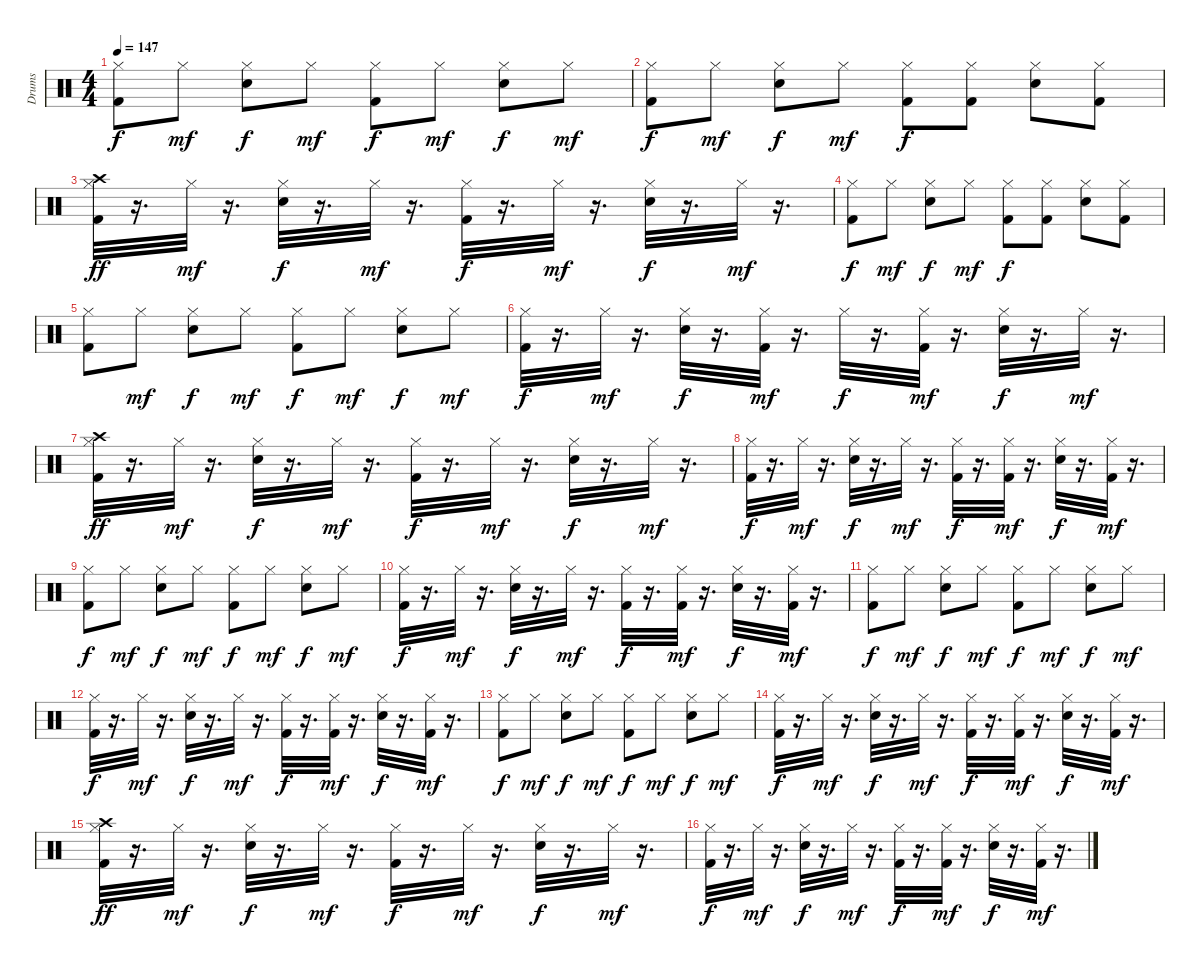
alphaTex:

\track ("Drums" "Drums") {instrument percussion}
\staff {score}
\articulation defaults
\ts (4 4)
\tempo 147
\clef neutral
\ks c
("Hi-Hat (closed)" "Kick (hit) 2").8{dy f} "Hi-Hat (closed)".8{dy mf} ("Hi-Hat (closed)" "Snare (hit) 2").8{dy f} "Hi-Hat (closed)".8{dy mf} ("Hi-Hat (closed)" "Kick (hit) 2").8{dy f} "Hi-Hat (closed)".8{dy mf} ("Hi-Hat (closed)" "Snare (hit) 2").8{dy f} "Hi-Hat (closed)".8{dy mf} |
("Hi-Hat (closed)" "Kick (hit) 2").8{dy f} "Hi-Hat (closed)".8{dy mf} ("Hi-Hat (closed)" "Snare (hit) 2").8{dy f} "Hi-Hat (closed)".8{dy mf} ("Hi-Hat (closed)" "Kick (hit) 2").8{dy f} ("Hi-Hat (closed)" "Kick (hit) 2").8 ("Hi-Hat (closed)" "Snare (hit) 2").8 ("Hi-Hat (closed)" "Kick (hit) 2").8 |
("Kick (hit) 2" "Hi-Hat (closed)" "Crash high (hit)").32{dy ff} r.16{d} "Hi-Hat (closed)".32{dy mf} r.16{d} ("Snare (hit) 2" "Hi-Hat (closed)").32{dy f} r.16{d} "Hi-Hat (closed)".32{dy mf} r.16{d} ("Kick (hit) 2" "Hi-Hat (closed)").32{dy f} r.16{d} "Hi-Hat (closed)".32{dy mf} r.16{d} ("Snare (hit) 2" "Hi-Hat (closed)").32{dy f} r.16{d} "Hi-Hat (closed)".32{dy mf} r.16{d} |
("Hi-Hat (closed)" "Kick (hit) 2").8{dy f} "Hi-Hat (closed)".8{dy mf} ("Hi-Hat (closed)" "Snare (hit) 2").8{dy f} "Hi-Hat (closed)".8{dy mf} ("Hi-Hat (closed)" "Kick (hit) 2").8{dy f} ("Hi-Hat (closed)" "Kick (hit) 2").8 ("Hi-Hat (closed)" "Snare (hit) 2").8 ("Hi-Hat (closed)" "Kick (hit) 2").8 |
("Hi-Hat (closed)" "Kick (hit) 2").8 "Hi-Hat (closed)".8{dy mf} ("Hi-Hat (closed)" "Snare (hit) 2").8{dy f} "Hi-Hat (closed)".8{dy mf} ("Hi-Hat (closed)" "Kick (hit) 2").8{dy f} "Hi-Hat (closed)".8{dy mf} ("Hi-Hat (closed)" "Snare (hit) 2").8{dy f} "Hi-Hat (closed)".8{dy mf} |
("Kick (hit) 2" "Hi-Hat (closed)").32{dy f} r.16{d} "Hi-Hat (closed)".32{dy mf} r.16{d} ("Snare (hit) 2" "Hi-Hat (closed)").32{dy f} r.16{d} ("Kick (hit) 2" "Hi-Hat (closed)").32{dy mf} r.16{d} "Hi-Hat (closed)".32{dy f} r.16{d} ("Kick (hit) 2" "Hi-Hat (closed)").32{dy mf} r.16{d} ("Snare (hit) 2" "Hi-Hat (closed)").32{dy f} r.16{d} "Hi-Hat (closed)".32{dy mf} r.16{d} |
("Kick (hit) 2" "Hi-Hat (closed)" "Crash high (hit)").32{dy ff} r.16{d} "Hi-Hat (closed)".32{dy mf} r.16{d} ("Snare (hit) 2" "Hi-Hat (closed)").32{dy f} r.16{d} "Hi-Hat (closed)".32{dy mf} r.16{d} ("Kick (hit) 2" "Hi-Hat (closed)").32{dy f} r.16{d} "Hi-Hat (closed)".32{dy mf} r.16{d} ("Snare (hit) 2" "Hi-Hat (closed)").32{dy f} r.16{d} "Hi-Hat (closed)".32{dy mf} r.16{d} |
("Kick (hit) 2" "Hi-Hat (closed)").32{dy f} r.16{d} "Hi-Hat (closed)".32{dy mf} r.16{d} ("Snare (hit) 2" "Hi-Hat (closed)").32{dy f} r.16{d} "Hi-Hat (closed)".32{dy mf} r.16{d} ("Kick (hit) 2" "Hi-Hat (closed)").32{dy f} r.16{d} ("Kick (hit) 2" "Hi-Hat (closed)").32{dy mf} r.16{d} ("Snare (hit) 2" "Hi-Hat (closed)").32{dy f} r.16{d} ("Kick (hit) 2" "Hi-Hat (closed)").32{dy mf} r.16{d} |
("Hi-Hat (closed)" "Kick (hit) 2").8{dy f} "Hi-Hat (closed)".8{dy mf} ("Hi-Hat (closed)" "Snare (hit) 2").8{dy f} "Hi-Hat (closed)".8{dy mf} ("Hi-Hat (closed)" "Kick (hit) 2").8{dy f} "Hi-Hat (closed)".8{dy mf} ("Hi-Hat (closed)" "Snare (hit) 2").8{dy f} "Hi-Hat (closed)".8{dy mf} |
("Kick (hit) 2" "Hi-Hat (closed)").32{dy f} r.16{d} "Hi-Hat (closed)".32{dy mf} r.16{d} ("Snare (hit) 2" "Hi-Hat (closed)").32{dy f} r.16{d} "Hi-Hat (closed)".32{dy mf} r.16{d} ("Kick (hit) 2" "Hi-Hat (closed)").32{dy f} r.16{d} ("Kick (hit) 2" "Hi-Hat (closed)").32{dy mf} r.16{d} ("Snare (hit) 2" "Hi-Hat (closed)").32{dy f} r.16{d} ("Kick (hit) 2" "Hi-Hat (closed)").32{dy mf} r.16{d} |
("Hi-Hat (closed)" "Kick (hit) 2").8{dy f} "Hi-Hat (closed)".8{dy mf} ("Hi-Hat (closed)" "Snare (hit) 2").8{dy f} "Hi-Hat (closed)".8{dy mf} ("Hi-Hat (closed)" "Kick (hit) 2").8{dy f} "Hi-Hat (closed)".8{dy mf} ("Hi-Hat (closed)" "Snare (hit) 2").8{dy f} "Hi-Hat (closed)".8{dy mf} |
("Kick (hit) 2" "Hi-Hat (closed)").32{dy f} r.16{d} "Hi-Hat (closed)".32{dy mf} r.16{d} ("Snare (hit) 2" "Hi-Hat (closed)").32{dy f} r.16{d} "Hi-Hat (closed)".32{dy mf} r.16{d} ("Kick (hit) 2" "Hi-Hat (closed)").32{dy f} r.16{d} ("Kick (hit) 2" "Hi-Hat (closed)").32{dy mf} r.16{d} ("Snare (hit) 2" "Hi-Hat (closed)").32{dy f} r.16{d} ("Kick (hit) 2" "Hi-Hat (closed)").32{dy mf} r.16{d} |
("Hi-Hat (closed)" "Kick (hit) 2").8{dy f} "Hi-Hat (closed)".8{dy mf} ("Hi-Hat (closed)" "Snare (hit) 2").8{dy f} "Hi-Hat (closed)".8{dy mf} ("Hi-Hat (closed)" "Kick (hit) 2").8{dy f} "Hi-Hat (closed)".8{dy mf} ("Hi-Hat (closed)" "Snare (hit) 2").8{dy f} "Hi-Hat (closed)".8{dy mf} |
("Kick (hit) 2" "Hi-Hat (closed)").32{dy f} r.16{d} "Hi-Hat (closed)".32{dy mf} r.16{d} ("Snare (hit) 2" "Hi-Hat (closed)").32{dy f} r.16{d} "Hi-Hat (closed)".32{dy mf} r.16{d} ("Kick (hit) 2" "Hi-Hat (closed)").32{dy f} r.16{d} ("Kick (hit) 2" "Hi-Hat (closed)").32{dy mf} r.16{d} ("Snare (hit) 2" "Hi-Hat (closed)").32{dy f} r.16{d} ("Kick (hit) 2" "Hi-Hat (closed)").32{dy mf} r.16{d} |
("Kick (hit) 2" "Hi-Hat (closed)" "Crash high (hit)").32{dy ff} r.16{d} "Hi-Hat (closed)".32{dy mf} r.16{d} ("Snare (hit) 2" "Hi-Hat (closed)").32{dy f} r.16{d} "Hi-Hat (closed)".32{dy mf} r.16{d} ("Kick (hit) 2" "Hi-Hat (closed)").32{dy f} r.16{d} "Hi-Hat (closed)".32{dy mf} r.16{d} ("Snare (hit) 2" "Hi-Hat (closed)").32{dy f} r.16{d} "Hi-Hat (closed)".32{dy mf} r.16{d} |
("Kick (hit) 2" "Hi-Hat (closed)").32{dy f} r.16{d} "Hi-Hat (closed)".32{dy mf} r.16{d} ("Snare (hit) 2" "Hi-Hat (closed)").32{dy f} r.16{d} "Hi-Hat (closed)".32{dy mf} r.16{d} ("Kick (hit) 2" "Hi-Hat (closed)").32{dy f} r.16{d} ("Kick (hit) 2" "Hi-Hat (closed)").32{dy mf} r.16{d} ("Snare (hit) 2" "Hi-Hat (closed)").32{dy f} r.16{d} ("Kick (hit) 2" "Hi-Hat (closed)").32{dy mf} r.16{d}
